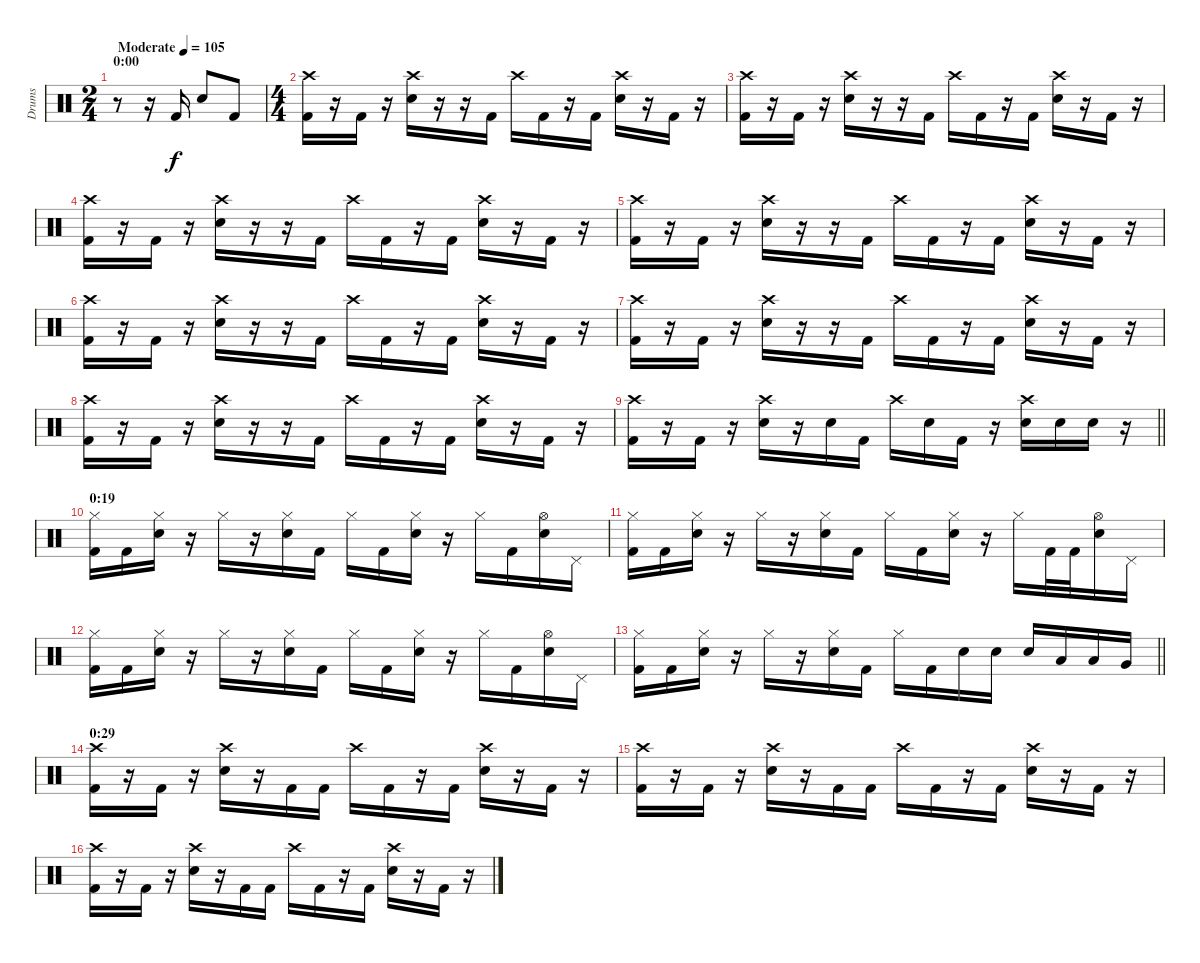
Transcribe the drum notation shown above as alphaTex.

\track ("Drums" "Drums") {instrument percussion}
\staff {score}
\articulation defaults
\ts (2 4)
\section ("" "0:00")
\tempo (105 "Moderate")
\clef neutral
\ks c
r.8{dy f} r.16 "Kick (hit) 2".16 "Electric Snare (hit)".8 "Kick (hit) 2".8 |
\ts (4 4)
("Crash high (hit)" "Kick (hit) 2").16 r.16 "Kick (hit) 2".16 r.16 ("Crash high (hit)" "Electric Snare (hit)").16 r.16 r.16 "Kick (hit) 2".16 "Crash high (hit)".16 "Kick (hit) 2".16 r.16 "Kick (hit) 2".16 ("Crash high (hit)" "Electric Snare (hit)").16 r.16 "Kick (hit) 2".16 r.16 |
("Crash high (hit)" "Kick (hit) 2").16 r.16 "Kick (hit) 2".16 r.16 ("Crash high (hit)" "Electric Snare (hit)").16 r.16 r.16 "Kick (hit) 2".16 "Crash high (hit)".16 "Kick (hit) 2".16 r.16 "Kick (hit) 2".16 ("Crash high (hit)" "Electric Snare (hit)").16 r.16 "Kick (hit) 2".16 r.16 |
("Crash high (hit)" "Kick (hit) 2").16 r.16 "Kick (hit) 2".16 r.16 ("Crash high (hit)" "Electric Snare (hit)").16 r.16 r.16 "Kick (hit) 2".16 "Crash high (hit)".16 "Kick (hit) 2".16 r.16 "Kick (hit) 2".16 ("Crash high (hit)" "Electric Snare (hit)").16 r.16 "Kick (hit) 2".16 r.16 |
("Crash high (hit)" "Kick (hit) 2").16 r.16 "Kick (hit) 2".16 r.16 ("Crash high (hit)" "Electric Snare (hit)").16 r.16 r.16 "Kick (hit) 2".16 "Crash high (hit)".16 "Kick (hit) 2".16 r.16 "Kick (hit) 2".16 ("Crash high (hit)" "Electric Snare (hit)").16 r.16 "Kick (hit) 2".16 r.16 |
("Crash high (hit)" "Kick (hit) 2").16 r.16 "Kick (hit) 2".16 r.16 ("Crash high (hit)" "Electric Snare (hit)").16 r.16 r.16 "Kick (hit) 2".16 "Crash high (hit)".16 "Kick (hit) 2".16 r.16 "Kick (hit) 2".16 ("Crash high (hit)" "Electric Snare (hit)").16 r.16 "Kick (hit) 2".16 r.16 |
("Crash high (hit)" "Kick (hit) 2").16 r.16 "Kick (hit) 2".16 r.16 ("Crash high (hit)" "Electric Snare (hit)").16 r.16 r.16 "Kick (hit) 2".16 "Crash high (hit)".16 "Kick (hit) 2".16 r.16 "Kick (hit) 2".16 ("Crash high (hit)" "Electric Snare (hit)").16 r.16 "Kick (hit) 2".16 r.16 |
("Crash high (hit)" "Kick (hit) 2").16 r.16 "Kick (hit) 2".16 r.16 ("Crash high (hit)" "Electric Snare (hit)").16 r.16 r.16 "Kick (hit) 2".16 "Crash high (hit)".16 "Kick (hit) 2".16 r.16 "Kick (hit) 2".16 ("Crash high (hit)" "Electric Snare (hit)").16 r.16 "Kick (hit) 2".16 r.16 |
\barLineRight lightlight
("Crash high (hit)" "Kick (hit) 2").16 r.16 "Kick (hit) 2".16 r.16 ("Crash high (hit)" "Electric Snare (hit)").16 r.16 "Electric Snare (hit)".16 "Kick (hit) 2".16 "Crash high (hit)".16 "Electric Snare (hit)".16 "Kick (hit) 2".16 r.16 ("Crash high (hit)" "Electric Snare (hit)").16 "Electric Snare (hit)".16 "Electric Snare (hit)".16 r.16 |
\section ("" "0:19")
("Hi-Hat (closed)" "Kick (hit) 2").16 "Kick (hit) 2".16 ("Hi-Hat (closed)" "Electric Snare (hit)").16 r.16 "Hi-Hat (closed)".16 r.16 ("Hi-Hat (closed)" "Electric Snare (hit)").16 "Kick (hit) 2".16 "Hi-Hat (closed)".16 "Kick (hit) 2".16 ("Hi-Hat (closed)" "Electric Snare (hit)").16 r.16 "Hi-Hat (closed)".16 "Kick (hit) 2".16 ("Hi-Hat (open)" "Electric Snare (hit)").16 "Pedal Hi-Hat (hit)".16 |
("Hi-Hat (closed)" "Kick (hit) 2").16 "Kick (hit) 2".16 ("Hi-Hat (closed)" "Electric Snare (hit)").16 r.16 "Hi-Hat (closed)".16 r.16 ("Hi-Hat (closed)" "Electric Snare (hit)").16 "Kick (hit) 2".16 "Hi-Hat (closed)".16 "Kick (hit) 2".16 ("Hi-Hat (closed)" "Electric Snare (hit)").16 r.16 "Hi-Hat (closed)".16 "Kick (hit) 2".32 "Kick (hit) 2".32 ("Hi-Hat (open)" "Electric Snare (hit)").16 "Pedal Hi-Hat (hit)".16 |
("Hi-Hat (closed)" "Kick (hit) 2").16 "Kick (hit) 2".16 ("Hi-Hat (closed)" "Electric Snare (hit)").16 r.16 "Hi-Hat (closed)".16 r.16 ("Hi-Hat (closed)" "Electric Snare (hit)").16 "Kick (hit) 2".16 "Hi-Hat (closed)".16 "Kick (hit) 2".16 ("Hi-Hat (closed)" "Electric Snare (hit)").16 r.16 "Hi-Hat (closed)".16 "Kick (hit) 2".16 ("Hi-Hat (open)" "Electric Snare (hit)").16 "Pedal Hi-Hat (hit)".16 |
\barLineRight lightlight
("Hi-Hat (closed)" "Kick (hit) 2").16 "Kick (hit) 2".16 ("Hi-Hat (closed)" "Electric Snare (hit)").16 r.16 "Hi-Hat (closed)".16 r.16 ("Hi-Hat (closed)" "Electric Snare (hit)").16 "Kick (hit) 2".16 "Hi-Hat (closed)".16 "Kick (hit) 2".16 "Electric Snare (hit)".16 "Electric Snare (hit)".16 "Electric Snare (hit)".16 "Low Tom (hit)".16 "Low Tom (hit)".16 "Very Low Tom (hit)".16 |
\section ("" "0:29")
("Crash high (hit)" "Kick (hit) 2").16 r.16 "Kick (hit) 2".16 r.16 ("Crash high (hit)" "Electric Snare (hit)").16 r.16 "Kick (hit) 2".16 "Kick (hit) 2".16 "Crash high (hit)".16 "Kick (hit) 2".16 r.16 "Kick (hit) 2".16 ("Crash high (hit)" "Electric Snare (hit)").16 r.16 "Kick (hit) 2".16 r.16 |
("Crash high (hit)" "Kick (hit) 2").16 r.16 "Kick (hit) 2".16 r.16 ("Crash high (hit)" "Electric Snare (hit)").16 r.16 "Kick (hit) 2".16 "Kick (hit) 2".16 "Crash high (hit)".16 "Kick (hit) 2".16 r.16 "Kick (hit) 2".16 ("Crash high (hit)" "Electric Snare (hit)").16 r.16 "Kick (hit) 2".16 r.16 |
("Crash high (hit)" "Kick (hit) 2").16 r.16 "Kick (hit) 2".16 r.16 ("Crash high (hit)" "Electric Snare (hit)").16 r.16 "Kick (hit) 2".16 "Kick (hit) 2".16 "Crash high (hit)".16 "Kick (hit) 2".16 r.16 "Kick (hit) 2".16 ("Crash high (hit)" "Electric Snare (hit)").16 r.16 "Kick (hit) 2".16 r.16
